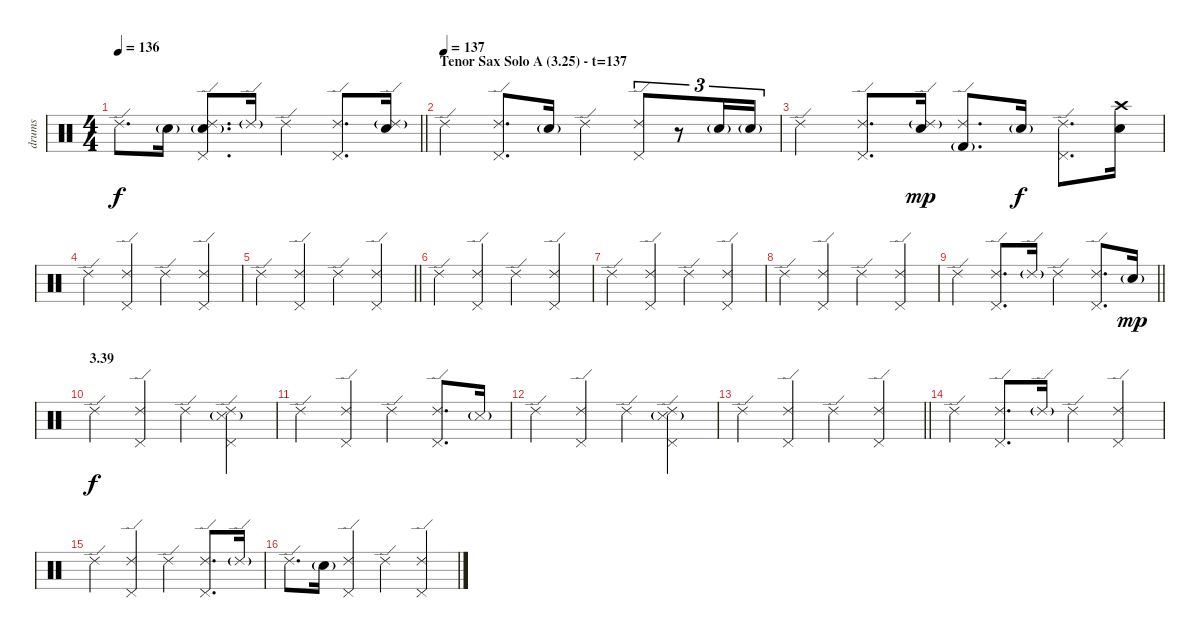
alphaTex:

\track ("drums" "drums") {instrument percussion}
\staff {score}
\articulation defaults
\ts (4 4)
\tempo 136
\clef neutral
\barLineRight lightlight
\ks c "Ride (edge) 2".8{d dy f} "Electric Snare (hit)"{g}.16
("Ride (edge) 2" "Pedal Hi-Hat (hit)" "Electric Snare (hit)"{g}).8{d} "Ride (edge) 2"{g}.16 "Ride (edge) 2".4 ("Ride (edge) 2" "Pedal Hi-Hat (hit)").8{d} ("Ride (edge) 2"{g} "Electric Snare (hit)").16 |
\section ("" "Tenor Sax Solo A (3.25) - t=137")
\tempo (137)
"Ride (edge) 2".4 ("Ride (edge) 2" "Pedal Hi-Hat (hit)").8{d} "Electric Snare (hit)"{g}.16 "Ride (edge) 2".4 ("Ride (edge) 2" "Pedal Hi-Hat (hit)").8{tu (3 2)} r.8{tu (3 2)} "Electric Snare (hit)"{g}.16{tu (3 2)} "Electric Snare (hit)"{g}.16{tu (3 2)} |
"Ride (edge) 2".4 ("Ride (edge) 2" "Pedal Hi-Hat (hit)").8{d} ("Ride (edge) 2"{g} "Electric Snare (hit)").16{dy mp} ("Ride (edge) 2" "Kick (hit) 2"{g}).8{d} "Electric Snare (hit)"{g}.16{dy f} ("Ride (edge) 2" "Pedal Hi-Hat (hit)").8{d} ("Crash high (hit)" "Electric Snare (hit)").16 |
"Ride (edge) 2".4 ("Ride (edge) 2" "Pedal Hi-Hat (hit)").4 "Ride (edge) 2".4 ("Ride (edge) 2" "Pedal Hi-Hat (hit)").4 |
\barLineRight lightlight "Ride (edge) 2".4
("Ride (edge) 2" "Pedal Hi-Hat (hit)").4 "Ride (edge) 2".4 ("Ride (edge) 2" "Pedal Hi-Hat (hit)").4 |
"Ride (edge) 2".4 ("Ride (edge) 2" "Pedal Hi-Hat (hit)").4 "Ride (edge) 2".4 ("Ride (edge) 2" "Pedal Hi-Hat (hit)").4 |
"Ride (edge) 2".4 ("Ride (edge) 2" "Pedal Hi-Hat (hit)").4 "Ride (edge) 2".4 ("Ride (edge) 2" "Pedal Hi-Hat (hit)").4 |
"Ride (edge) 2".4 ("Ride (edge) 2" "Pedal Hi-Hat (hit)").4 "Ride (edge) 2".4 ("Ride (edge) 2" "Pedal Hi-Hat (hit)").4 |
\barLineRight lightlight "Ride (edge) 2".4
("Ride (edge) 2" "Pedal Hi-Hat (hit)").8{d} "Ride (edge) 2"{g}.16 "Ride (edge) 2".4 ("Ride (edge) 2" "Pedal Hi-Hat (hit)").8{d} "Electric Snare (hit)"{g}.16{dy mp} |
\section ("" "3.39")
"Ride (edge) 2".4{dy f} ("Ride (edge) 2" "Pedal Hi-Hat (hit)").4 "Ride (edge) 2".4 ("Ride (edge) 2" "Pedal Hi-Hat (hit)" "Snare (side stick) 3"{g}).4 |
"Ride (edge) 2".4 ("Ride (edge) 2" "Pedal Hi-Hat (hit)").4 "Ride (edge) 2".4 ("Ride (edge) 2" "Pedal Hi-Hat (hit)").8{d} "Snare (side stick) 3"{g}.16 |
"Ride (edge) 2".4 ("Ride (edge) 2" "Pedal Hi-Hat (hit)").4 "Ride (edge) 2".4 ("Ride (edge) 2" "Pedal Hi-Hat (hit)" "Snare (side stick) 3"{g}).4 |
\barLineRight lightlight "Ride (edge) 2".4
("Ride (edge) 2" "Pedal Hi-Hat (hit)").4 "Ride (edge) 2".4 ("Ride (edge) 2" "Pedal Hi-Hat (hit)").4 |
"Ride (edge) 2".4 ("Ride (edge) 2" "Pedal Hi-Hat (hit)").8{d} "Ride (edge) 2"{g}.16 "Ride (edge) 2".4 ("Ride (edge) 2" "Pedal Hi-Hat (hit)").4 |
"Ride (edge) 2".4 ("Ride (edge) 2" "Pedal Hi-Hat (hit)").4 "Ride (edge) 2".4 ("Ride (edge) 2" "Pedal Hi-Hat (hit)").8{d} "Ride (edge) 2"{g}.16 |
"Ride (edge) 2".8{d} "Electric Snare (hit)"{g}.16 ("Ride (edge) 2" "Pedal Hi-Hat (hit)").4 "Ride (edge) 2".4 ("Ride (edge) 2" "Pedal Hi-Hat (hit)").4
